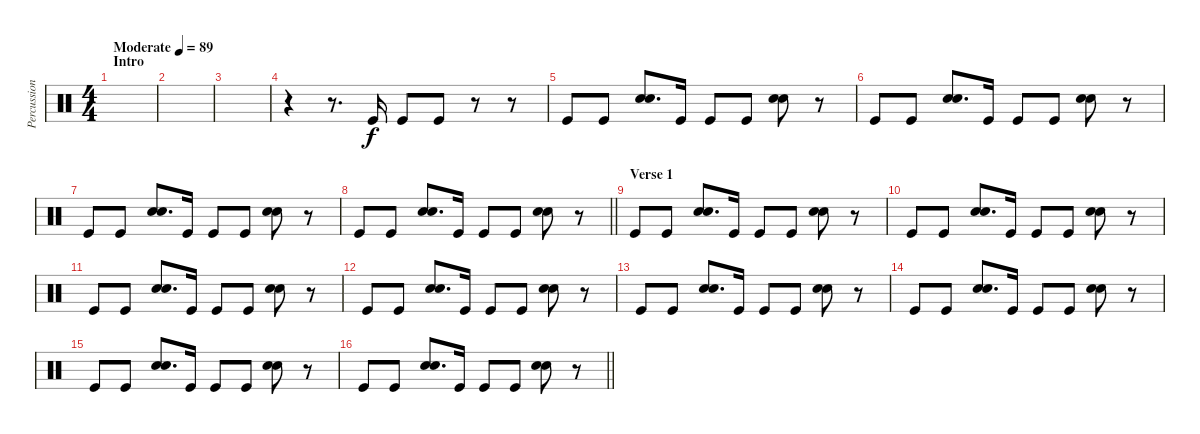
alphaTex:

\track ("Percussion" "Percussion") {instrument percussion}
\staff {score}
\articulation defaults
\ts (4 4)
\section ("" "Intro")
\tempo (89 "Moderate")
\clef neutral
\ks c
|
|
|
r.4 r.8{d} "Kick (hit)".16 "Kick (hit)".8 "Kick (hit)".8 r.8 r.8 |
"Kick (hit)".8 "Kick (hit)".8 ("Electric Snare (hit)" "Hand Clap (hit)").8{d} "Kick (hit)".16 "Kick (hit)".8 "Kick (hit)".8 ("Electric Snare (hit)" "Hand Clap (hit)").8 r.8 |
"Kick (hit)".8 "Kick (hit)".8 ("Electric Snare (hit)" "Hand Clap (hit)").8{d} "Kick (hit)".16 "Kick (hit)".8 "Kick (hit)".8 ("Electric Snare (hit)" "Hand Clap (hit)").8 r.8 |
"Kick (hit)".8 "Kick (hit)".8 ("Electric Snare (hit)" "Hand Clap (hit)").8{d} "Kick (hit)".16 "Kick (hit)".8 "Kick (hit)".8 ("Electric Snare (hit)" "Hand Clap (hit)").8 r.8 |
\barLineRight lightlight "Kick (hit)".8 "Kick (hit)".8
("Electric Snare (hit)" "Hand Clap (hit)").8{d} "Kick (hit)".16 "Kick (hit)".8 "Kick (hit)".8 ("Electric Snare (hit)" "Hand Clap (hit)").8 r.8 |
\section ("" "Verse 1")
"Kick (hit)".8 "Kick (hit)".8 ("Electric Snare (hit)" "Hand Clap (hit)").8{d} "Kick (hit)".16 "Kick (hit)".8 "Kick (hit)".8 ("Electric Snare (hit)" "Hand Clap (hit)").8 r.8 |
"Kick (hit)".8 "Kick (hit)".8 ("Electric Snare (hit)" "Hand Clap (hit)").8{d} "Kick (hit)".16 "Kick (hit)".8 "Kick (hit)".8 ("Electric Snare (hit)" "Hand Clap (hit)").8 r.8 |
"Kick (hit)".8 "Kick (hit)".8 ("Electric Snare (hit)" "Hand Clap (hit)").8{d} "Kick (hit)".16 "Kick (hit)".8 "Kick (hit)".8 ("Electric Snare (hit)" "Hand Clap (hit)").8 r.8 |
"Kick (hit)".8 "Kick (hit)".8 ("Electric Snare (hit)" "Hand Clap (hit)").8{d} "Kick (hit)".16 "Kick (hit)".8 "Kick (hit)".8 ("Electric Snare (hit)" "Hand Clap (hit)").8 r.8 |
"Kick (hit)".8 "Kick (hit)".8 ("Electric Snare (hit)" "Hand Clap (hit)").8{d} "Kick (hit)".16 "Kick (hit)".8 "Kick (hit)".8 ("Electric Snare (hit)" "Hand Clap (hit)").8 r.8 |
"Kick (hit)".8 "Kick (hit)".8 ("Electric Snare (hit)" "Hand Clap (hit)").8{d} "Kick (hit)".16 "Kick (hit)".8 "Kick (hit)".8 ("Electric Snare (hit)" "Hand Clap (hit)").8 r.8 |
"Kick (hit)".8 "Kick (hit)".8 ("Electric Snare (hit)" "Hand Clap (hit)").8{d} "Kick (hit)".16 "Kick (hit)".8 "Kick (hit)".8 ("Electric Snare (hit)" "Hand Clap (hit)").8 r.8 |
\barLineRight lightlight "Kick (hit)".8 "Kick (hit)".8
("Electric Snare (hit)" "Hand Clap (hit)").8{d} "Kick (hit)".16 "Kick (hit)".8 "Kick (hit)".8 ("Electric Snare (hit)" "Hand Clap (hit)").8 r.8
